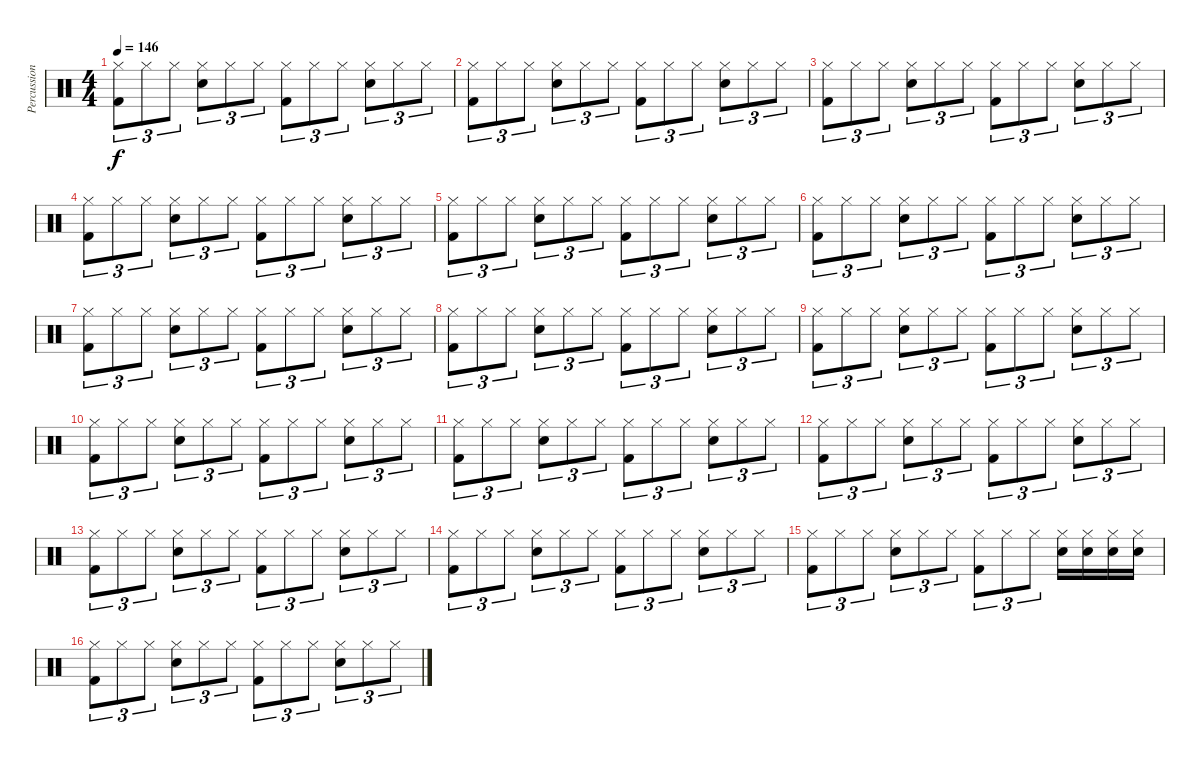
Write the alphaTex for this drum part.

\track ("Percussions" "Percussion") {instrument percussion}
\staff {score}
\articulation defaults
\ts (4 4)
\tempo 146
\clef neutral
\ks c
("Hi-Hat (closed)" "Kick (hit) 2").8{tu (3 2) dy f} "Hi-Hat (closed)".8{tu (3 2)} "Hi-Hat (closed)".8{tu (3 2)} ("Hi-Hat (closed)" "Electric Snare (hit)").8{tu (3 2)} "Hi-Hat (closed)".8{tu (3 2)} "Hi-Hat (closed)".8{tu (3 2)} ("Hi-Hat (closed)" "Kick (hit) 2").8{tu (3 2)} "Hi-Hat (closed)".8{tu (3 2)} "Hi-Hat (closed)".8{tu (3 2)} ("Hi-Hat (closed)" "Electric Snare (hit)").8{tu (3 2)} "Hi-Hat (closed)".8{tu (3 2)} "Hi-Hat (closed)".8{tu (3 2)} |
("Hi-Hat (closed)" "Kick (hit) 2").8{tu (3 2)} "Hi-Hat (closed)".8{tu (3 2)} "Hi-Hat (closed)".8{tu (3 2)} ("Hi-Hat (closed)" "Electric Snare (hit)").8{tu (3 2)} "Hi-Hat (closed)".8{tu (3 2)} "Hi-Hat (closed)".8{tu (3 2)} ("Hi-Hat (closed)" "Kick (hit) 2").8{tu (3 2)} "Hi-Hat (closed)".8{tu (3 2)} "Hi-Hat (closed)".8{tu (3 2)} ("Hi-Hat (closed)" "Electric Snare (hit)").8{tu (3 2)} "Hi-Hat (closed)".8{tu (3 2)} "Hi-Hat (closed)".8{tu (3 2)} |
("Hi-Hat (closed)" "Kick (hit) 2").8{tu (3 2)} "Hi-Hat (closed)".8{tu (3 2)} "Hi-Hat (closed)".8{tu (3 2)} ("Hi-Hat (closed)" "Electric Snare (hit)").8{tu (3 2)} "Hi-Hat (closed)".8{tu (3 2)} "Hi-Hat (closed)".8{tu (3 2)} ("Hi-Hat (closed)" "Kick (hit) 2").8{tu (3 2)} "Hi-Hat (closed)".8{tu (3 2)} "Hi-Hat (closed)".8{tu (3 2)} ("Hi-Hat (closed)" "Electric Snare (hit)").8{tu (3 2)} "Hi-Hat (closed)".8{tu (3 2)} "Hi-Hat (closed)".8{tu (3 2)} |
("Hi-Hat (closed)" "Kick (hit) 2").8{tu (3 2)} "Hi-Hat (closed)".8{tu (3 2)} "Hi-Hat (closed)".8{tu (3 2)} ("Hi-Hat (closed)" "Electric Snare (hit)").8{tu (3 2)} "Hi-Hat (closed)".8{tu (3 2)} "Hi-Hat (closed)".8{tu (3 2)} ("Hi-Hat (closed)" "Kick (hit) 2").8{tu (3 2)} "Hi-Hat (closed)".8{tu (3 2)} "Hi-Hat (closed)".8{tu (3 2)} ("Hi-Hat (closed)" "Electric Snare (hit)").8{tu (3 2)} "Hi-Hat (closed)".8{tu (3 2)} "Hi-Hat (closed)".8{tu (3 2)} |
("Hi-Hat (closed)" "Kick (hit) 2").8{tu (3 2)} "Hi-Hat (closed)".8{tu (3 2)} "Hi-Hat (closed)".8{tu (3 2)} ("Hi-Hat (closed)" "Electric Snare (hit)").8{tu (3 2)} "Hi-Hat (closed)".8{tu (3 2)} "Hi-Hat (closed)".8{tu (3 2)} ("Hi-Hat (closed)" "Kick (hit) 2").8{tu (3 2)} "Hi-Hat (closed)".8{tu (3 2)} "Hi-Hat (closed)".8{tu (3 2)} ("Hi-Hat (closed)" "Electric Snare (hit)").8{tu (3 2)} "Hi-Hat (closed)".8{tu (3 2)} "Hi-Hat (closed)".8{tu (3 2)} |
("Hi-Hat (closed)" "Kick (hit) 2").8{tu (3 2)} "Hi-Hat (closed)".8{tu (3 2)} "Hi-Hat (closed)".8{tu (3 2)} ("Hi-Hat (closed)" "Electric Snare (hit)").8{tu (3 2)} "Hi-Hat (closed)".8{tu (3 2)} "Hi-Hat (closed)".8{tu (3 2)} ("Hi-Hat (closed)" "Kick (hit) 2").8{tu (3 2)} "Hi-Hat (closed)".8{tu (3 2)} "Hi-Hat (closed)".8{tu (3 2)} ("Hi-Hat (closed)" "Electric Snare (hit)").8{tu (3 2)} "Hi-Hat (closed)".8{tu (3 2)} "Hi-Hat (closed)".8{tu (3 2)} |
("Hi-Hat (closed)" "Kick (hit) 2").8{tu (3 2)} "Hi-Hat (closed)".8{tu (3 2)} "Hi-Hat (closed)".8{tu (3 2)} ("Hi-Hat (closed)" "Electric Snare (hit)").8{tu (3 2)} "Hi-Hat (closed)".8{tu (3 2)} "Hi-Hat (closed)".8{tu (3 2)} ("Hi-Hat (closed)" "Kick (hit) 2").8{tu (3 2)} "Hi-Hat (closed)".8{tu (3 2)} "Hi-Hat (closed)".8{tu (3 2)} ("Hi-Hat (closed)" "Electric Snare (hit)").8{tu (3 2)} "Hi-Hat (closed)".8{tu (3 2)} "Hi-Hat (closed)".8{tu (3 2)} |
("Hi-Hat (closed)" "Kick (hit) 2").8{tu (3 2)} "Hi-Hat (closed)".8{tu (3 2)} "Hi-Hat (closed)".8{tu (3 2)} ("Hi-Hat (closed)" "Electric Snare (hit)").8{tu (3 2)} "Hi-Hat (closed)".8{tu (3 2)} "Hi-Hat (closed)".8{tu (3 2)} ("Hi-Hat (closed)" "Kick (hit) 2").8{tu (3 2)} "Hi-Hat (closed)".8{tu (3 2)} "Hi-Hat (closed)".8{tu (3 2)} ("Hi-Hat (closed)" "Electric Snare (hit)").8{tu (3 2)} "Hi-Hat (closed)".8{tu (3 2)} "Hi-Hat (closed)".8{tu (3 2)} |
("Hi-Hat (closed)" "Kick (hit) 2").8{tu (3 2)} "Hi-Hat (closed)".8{tu (3 2)} "Hi-Hat (closed)".8{tu (3 2)} ("Hi-Hat (closed)" "Electric Snare (hit)").8{tu (3 2)} "Hi-Hat (closed)".8{tu (3 2)} "Hi-Hat (closed)".8{tu (3 2)} ("Hi-Hat (closed)" "Kick (hit) 2").8{tu (3 2)} "Hi-Hat (closed)".8{tu (3 2)} "Hi-Hat (closed)".8{tu (3 2)} ("Hi-Hat (closed)" "Electric Snare (hit)").8{tu (3 2)} "Hi-Hat (closed)".8{tu (3 2)} "Hi-Hat (closed)".8{tu (3 2)} |
("Hi-Hat (closed)" "Kick (hit) 2").8{tu (3 2)} "Hi-Hat (closed)".8{tu (3 2)} "Hi-Hat (closed)".8{tu (3 2)} ("Hi-Hat (closed)" "Electric Snare (hit)").8{tu (3 2)} "Hi-Hat (closed)".8{tu (3 2)} "Hi-Hat (closed)".8{tu (3 2)} ("Hi-Hat (closed)" "Kick (hit) 2").8{tu (3 2)} "Hi-Hat (closed)".8{tu (3 2)} "Hi-Hat (closed)".8{tu (3 2)} ("Hi-Hat (closed)" "Electric Snare (hit)").8{tu (3 2)} "Hi-Hat (closed)".8{tu (3 2)} "Hi-Hat (closed)".8{tu (3 2)} |
("Hi-Hat (closed)" "Kick (hit) 2").8{tu (3 2)} "Hi-Hat (closed)".8{tu (3 2)} "Hi-Hat (closed)".8{tu (3 2)} ("Hi-Hat (closed)" "Electric Snare (hit)").8{tu (3 2)} "Hi-Hat (closed)".8{tu (3 2)} "Hi-Hat (closed)".8{tu (3 2)} ("Hi-Hat (closed)" "Kick (hit) 2").8{tu (3 2)} "Hi-Hat (closed)".8{tu (3 2)} "Hi-Hat (closed)".8{tu (3 2)} ("Hi-Hat (closed)" "Electric Snare (hit)").8{tu (3 2)} "Hi-Hat (closed)".8{tu (3 2)} "Hi-Hat (closed)".8{tu (3 2)} |
("Hi-Hat (closed)" "Kick (hit) 2").8{tu (3 2)} "Hi-Hat (closed)".8{tu (3 2)} "Hi-Hat (closed)".8{tu (3 2)} ("Hi-Hat (closed)" "Electric Snare (hit)").8{tu (3 2)} "Hi-Hat (closed)".8{tu (3 2)} "Hi-Hat (closed)".8{tu (3 2)} ("Hi-Hat (closed)" "Kick (hit) 2").8{tu (3 2)} "Hi-Hat (closed)".8{tu (3 2)} "Hi-Hat (closed)".8{tu (3 2)} ("Hi-Hat (closed)" "Electric Snare (hit)").8{tu (3 2)} "Hi-Hat (closed)".8{tu (3 2)} "Hi-Hat (closed)".8{tu (3 2)} |
("Hi-Hat (closed)" "Kick (hit) 2").8{tu (3 2)} "Hi-Hat (closed)".8{tu (3 2)} "Hi-Hat (closed)".8{tu (3 2)} ("Hi-Hat (closed)" "Electric Snare (hit)").8{tu (3 2)} "Hi-Hat (closed)".8{tu (3 2)} "Hi-Hat (closed)".8{tu (3 2)} ("Hi-Hat (closed)" "Kick (hit) 2").8{tu (3 2)} "Hi-Hat (closed)".8{tu (3 2)} "Hi-Hat (closed)".8{tu (3 2)} ("Hi-Hat (closed)" "Electric Snare (hit)").8{tu (3 2)} "Hi-Hat (closed)".8{tu (3 2)} "Hi-Hat (closed)".8{tu (3 2)} |
("Hi-Hat (closed)" "Kick (hit) 2").8{tu (3 2)} "Hi-Hat (closed)".8{tu (3 2)} "Hi-Hat (closed)".8{tu (3 2)} ("Hi-Hat (closed)" "Electric Snare (hit)").8{tu (3 2)} "Hi-Hat (closed)".8{tu (3 2)} "Hi-Hat (closed)".8{tu (3 2)} ("Hi-Hat (closed)" "Kick (hit) 2").8{tu (3 2)} "Hi-Hat (closed)".8{tu (3 2)} "Hi-Hat (closed)".8{tu (3 2)} ("Hi-Hat (closed)" "Electric Snare (hit)").8{tu (3 2)} "Hi-Hat (closed)".8{tu (3 2)} "Hi-Hat (closed)".8{tu (3 2)} |
("Hi-Hat (closed)" "Kick (hit) 2").8{tu (3 2)} "Hi-Hat (closed)".8{tu (3 2)} "Hi-Hat (closed)".8{tu (3 2)} ("Hi-Hat (closed)" "Electric Snare (hit)").8{tu (3 2)} "Hi-Hat (closed)".8{tu (3 2)} "Hi-Hat (closed)".8{tu (3 2)} ("Hi-Hat (closed)" "Kick (hit) 2").8{tu (3 2)} "Hi-Hat (closed)".8{tu (3 2)} "Hi-Hat (closed)".8{tu (3 2)} ("Hi-Hat (closed)" "Electric Snare (hit)").16 ("Hi-Hat (closed)" "Electric Snare (hit)").16 ("Hi-Hat (closed)" "Electric Snare (hit)").16 ("Hi-Hat (closed)" "Electric Snare (hit)").16 |
("Hi-Hat (closed)" "Kick (hit) 2").8{tu (3 2)} "Hi-Hat (closed)".8{tu (3 2)} "Hi-Hat (closed)".8{tu (3 2)} ("Hi-Hat (closed)" "Electric Snare (hit)").8{tu (3 2)} "Hi-Hat (closed)".8{tu (3 2)} "Hi-Hat (closed)".8{tu (3 2)} ("Hi-Hat (closed)" "Kick (hit) 2").8{tu (3 2)} "Hi-Hat (closed)".8{tu (3 2)} "Hi-Hat (closed)".8{tu (3 2)} ("Hi-Hat (closed)" "Electric Snare (hit)").8{tu (3 2)} "Hi-Hat (closed)".8{tu (3 2)} "Hi-Hat (closed)".8{tu (3 2)}
